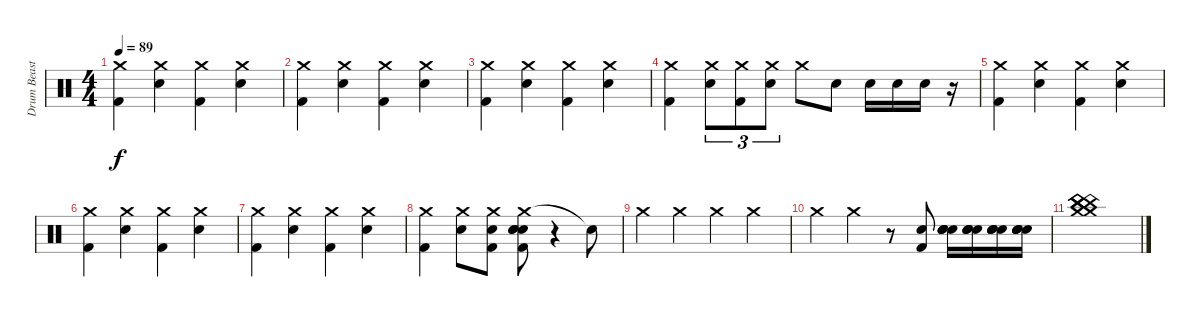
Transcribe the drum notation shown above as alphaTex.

\track ("Drum Beast Lars" "Drum Beast") {instrument percussion}
\staff {score}
\articulation defaults
\ts (4 4)
\tempo 89
\clef neutral
\ks c
("Crash medium (hit)" "Kick (hit) 2").4{dy f} ("Crash medium (hit)" "Electric Snare (hit)").4 ("Crash medium (hit)" "Kick (hit) 2").4 ("Crash medium (hit)" "Electric Snare (hit)").4 |
("Crash medium (hit)" "Kick (hit) 2").4 ("Crash medium (hit)" "Electric Snare (hit)").4 ("Crash medium (hit)" "Kick (hit) 2").4 ("Crash medium (hit)" "Electric Snare (hit)").4 |
("Crash medium (hit)" "Kick (hit) 2").4 ("Crash medium (hit)" "Electric Snare (hit)").4 ("Crash medium (hit)" "Kick (hit) 2").4 ("Crash medium (hit)" "Electric Snare (hit)").4 |
("Crash medium (hit)" "Kick (hit) 2").4 ("Crash medium (hit)" "Electric Snare (hit)").8{tu (3 2)} ("Crash medium (hit)" "Kick (hit) 2").8{tu (3 2)} ("Crash medium (hit)" "Electric Snare (hit)").8{tu (3 2)} "Crash medium (hit)".8 "Electric Snare (hit)".8 "Electric Snare (hit)".16 "Electric Snare (hit)".16 "Electric Snare (hit)".16 r.16 |
("Crash medium (hit)" "Kick (hit) 2").4 ("Crash medium (hit)" "Electric Snare (hit)").4 ("Crash medium (hit)" "Kick (hit) 2").4 ("Crash medium (hit)" "Electric Snare (hit)").4 |
("Crash medium (hit)" "Kick (hit) 2").4 ("Crash medium (hit)" "Electric Snare (hit)").4 ("Crash medium (hit)" "Kick (hit) 2").4 ("Crash medium (hit)" "Electric Snare (hit)").4 |
("Crash medium (hit)" "Kick (hit) 2").4 ("Crash medium (hit)" "Electric Snare (hit)").4 ("Crash medium (hit)" "Kick (hit) 2").4 ("Crash medium (hit)" "Electric Snare (hit)").4 |
("Crash medium (hit)" "Kick (hit) 2").4 ("Crash medium (hit)" "Electric Snare (hit)").8 ("Crash medium (hit)" "Electric Snare (hit)" "Kick (hit) 2").8 ("Crash medium (hit)" "Electric Snare (hit)" "Electric Snare (hit)" "Electric Snare (hit)" "Kick (hit) 2").8 r.4 "Snare (hit)"{t}.8 |
"Crash medium (hit)".4 "Crash medium (hit)".4 "Crash medium (hit)".4 "Crash medium (hit)".4 |
"Crash medium (hit)".4 "Crash medium (hit)".4 r.8 ("Electric Snare (hit)" "Kick (hit) 2").8 ("Electric Snare (hit)" "Electric Snare (hit)" "Electric Snare (hit)" "Electric Snare (hit)").16 ("Electric Snare (hit)" "Electric Snare (hit)" "Electric Snare (hit)" "Electric Snare (hit)").16 ("Electric Snare (hit)" "Electric Snare (hit)" "Electric Snare (hit)" "Electric Snare (hit)").16 ("Electric Snare (hit)" "Electric Snare (hit)" "Electric Snare (hit)" "Electric Snare (hit)").16 |
("Crash medium (hit)" "China (hit)" "China (hit)" "China (hit)" "China (hit)" "Crash medium (hit)").1
